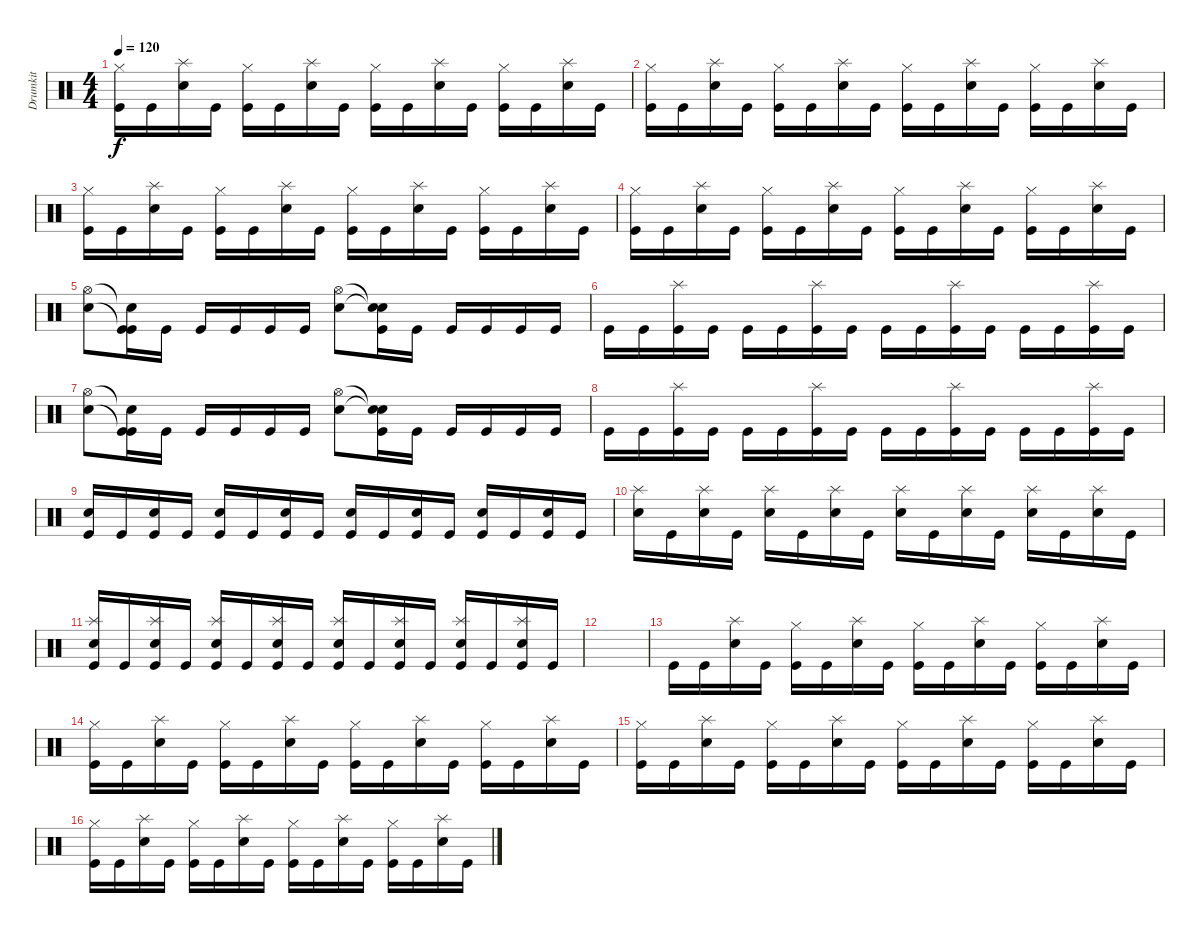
\track ("Drumkit" "Drumkit") {instrument percussion}
\staff {score}
\articulation defaults
\ts (4 4)
\tempo 120
\clef neutral
\ks c
("Hi-Hat (closed)" "Kick (hit)").16{dy f} "Kick (hit)".16 ("Splash (hit)" "Electric Snare (hit)").16 "Kick (hit)".16 ("Hi-Hat (closed)" "Kick (hit)").16 "Kick (hit)".16 ("Splash (hit)" "Electric Snare (hit)").16 "Kick (hit)".16 ("Hi-Hat (closed)" "Kick (hit)").16 "Kick (hit)".16 ("Splash (hit)" "Electric Snare (hit)").16 "Kick (hit)".16 ("Hi-Hat (closed)" "Kick (hit)").16 "Kick (hit)".16 ("Splash (hit)" "Electric Snare (hit)").16 "Kick (hit)".16 |
("Hi-Hat (closed)" "Kick (hit)").16 "Kick (hit)".16 ("Splash (hit)" "Electric Snare (hit)").16 "Kick (hit)".16 ("Hi-Hat (closed)" "Kick (hit)").16 "Kick (hit)".16 ("Splash (hit)" "Electric Snare (hit)").16 "Kick (hit)".16 ("Hi-Hat (closed)" "Kick (hit)").16 "Kick (hit)".16 ("Splash (hit)" "Electric Snare (hit)").16 "Kick (hit)".16 ("Hi-Hat (closed)" "Kick (hit)").16 "Kick (hit)".16 ("Splash (hit)" "Electric Snare (hit)").16 "Kick (hit)".16 |
("Hi-Hat (closed)" "Kick (hit)").16 "Kick (hit)".16 ("Splash (hit)" "Electric Snare (hit)").16 "Kick (hit)".16 ("Hi-Hat (closed)" "Kick (hit)").16 "Kick (hit)".16 ("Splash (hit)" "Electric Snare (hit)").16 "Kick (hit)".16 ("Hi-Hat (closed)" "Kick (hit)").16 "Kick (hit)".16 ("Splash (hit)" "Electric Snare (hit)").16 "Kick (hit)".16 ("Hi-Hat (closed)" "Kick (hit)").16 "Kick (hit)".16 ("Splash (hit)" "Electric Snare (hit)").16 "Kick (hit)".16 |
("Hi-Hat (closed)" "Kick (hit)").16 "Kick (hit)".16 ("Splash (hit)" "Electric Snare (hit)").16 "Kick (hit)".16 ("Hi-Hat (closed)" "Kick (hit)").16 "Kick (hit)".16 ("Splash (hit)" "Electric Snare (hit)").16 "Kick (hit)".16 ("Hi-Hat (closed)" "Kick (hit)").16 "Kick (hit)".16 ("Splash (hit)" "Electric Snare (hit)").16 "Kick (hit)".16 ("Hi-Hat (closed)" "Kick (hit)").16 "Kick (hit)".16 ("Splash (hit)" "Electric Snare (hit)").16 "Kick (hit)".16 |
("Hi-Hat (open)" "Electric Snare (hit)").8 ("Snare (hit)"{t} "Kick (hit)"{t} "Kick (hit)").16 "Kick (hit)".16 "Kick (hit)".16 "Kick (hit)".16 "Kick (hit)".16 "Kick (hit)".16 ("Hi-Hat (open)" "Electric Snare (hit)").8 ("Snare (hit)"{t} "Snare (hit)"{t} "Kick (hit)").16 "Kick (hit)".16 "Kick (hit)".16 "Kick (hit)".16 "Kick (hit)".16 "Kick (hit)".16 |
"Kick (hit)".16 "Kick (hit)".16 ("Splash (hit)" "Kick (hit)").16 "Kick (hit)".16 "Kick (hit)".16 "Kick (hit)".16 ("Splash (hit)" "Kick (hit)").16 "Kick (hit)".16 "Kick (hit)".16 "Kick (hit)".16 ("Splash (hit)" "Kick (hit)").16 "Kick (hit)".16 "Kick (hit)".16 "Kick (hit)".16 ("Splash (hit)" "Kick (hit)").16 "Kick (hit)".16 |
("Hi-Hat (open)" "Electric Snare (hit)").8 ("Snare (hit)"{t} "Kick (hit)"{t} "Kick (hit)").16 "Kick (hit)".16 "Kick (hit)".16 "Kick (hit)".16 "Kick (hit)".16 "Kick (hit)".16 ("Hi-Hat (open)" "Electric Snare (hit)").8 ("Snare (hit)"{t} "Snare (hit)"{t} "Kick (hit)").16 "Kick (hit)".16 "Kick (hit)".16 "Kick (hit)".16 "Kick (hit)".16 "Kick (hit)".16 |
"Kick (hit)".16 "Kick (hit)".16 ("Splash (hit)" "Kick (hit)").16 "Kick (hit)".16 "Kick (hit)".16 "Kick (hit)".16 ("Splash (hit)" "Kick (hit)").16 "Kick (hit)".16 "Kick (hit)".16 "Kick (hit)".16 ("Splash (hit)" "Kick (hit)").16 "Kick (hit)".16 "Kick (hit)".16 "Kick (hit)".16 ("Splash (hit)" "Kick (hit)").16 "Kick (hit)".16 |
("Electric Snare (hit)" "Kick (hit)").16 "Kick (hit)".16 ("Electric Snare (hit)" "Kick (hit)").16 "Kick (hit)".16 ("Electric Snare (hit)" "Kick (hit)").16 "Kick (hit)".16 ("Electric Snare (hit)" "Kick (hit)").16 "Kick (hit)".16 ("Electric Snare (hit)" "Kick (hit)").16 "Kick (hit)".16 ("Electric Snare (hit)" "Kick (hit)").16 "Kick (hit)".16 ("Electric Snare (hit)" "Kick (hit)").16 "Kick (hit)".16 ("Electric Snare (hit)" "Kick (hit)").16 "Kick (hit)".16 |
("Splash (hit)" "Electric Snare (hit)").16 "Kick (hit)".16 ("Splash (hit)" "Electric Snare (hit)").16 "Kick (hit)".16 ("Splash (hit)" "Electric Snare (hit)").16 "Kick (hit)".16 ("Splash (hit)" "Electric Snare (hit)").16 "Kick (hit)".16 ("Splash (hit)" "Electric Snare (hit)").16 "Kick (hit)".16 ("Splash (hit)" "Electric Snare (hit)").16 "Kick (hit)".16 ("Splash (hit)" "Electric Snare (hit)").16 "Kick (hit)".16 ("Splash (hit)" "Electric Snare (hit)").16 "Kick (hit)".16 |
("Splash (hit)" "Electric Snare (hit)" "Kick (hit)").16 "Kick (hit)".16 ("Splash (hit)" "Electric Snare (hit)" "Kick (hit)").16 "Kick (hit)".16 ("Splash (hit)" "Electric Snare (hit)" "Kick (hit)").16 "Kick (hit)".16 ("Splash (hit)" "Electric Snare (hit)" "Kick (hit)").16 "Kick (hit)".16 ("Splash (hit)" "Electric Snare (hit)" "Kick (hit)").16 "Kick (hit)".16 ("Splash (hit)" "Electric Snare (hit)" "Kick (hit)").16 "Kick (hit)".16 ("Splash (hit)" "Electric Snare (hit)" "Kick (hit)").16 "Kick (hit)".16 ("Splash (hit)" "Electric Snare (hit)" "Kick (hit)").16 "Kick (hit)".16 |
|
"Kick (hit)".16 "Kick (hit)".16 ("Splash (hit)" "Electric Snare (hit)").16 "Kick (hit)".16 ("Hi-Hat (closed)" "Kick (hit)").16 "Kick (hit)".16 ("Splash (hit)" "Electric Snare (hit)").16 "Kick (hit)".16 ("Hi-Hat (closed)" "Kick (hit)").16 "Kick (hit)".16 ("Splash (hit)" "Electric Snare (hit)").16 "Kick (hit)".16 ("Hi-Hat (closed)" "Kick (hit)").16 "Kick (hit)".16 ("Splash (hit)" "Electric Snare (hit)").16 "Kick (hit)".16 |
("Hi-Hat (closed)" "Kick (hit)").16 "Kick (hit)".16 ("Splash (hit)" "Electric Snare (hit)").16 "Kick (hit)".16 ("Hi-Hat (closed)" "Kick (hit)").16 "Kick (hit)".16 ("Splash (hit)" "Electric Snare (hit)").16 "Kick (hit)".16 ("Hi-Hat (closed)" "Kick (hit)").16 "Kick (hit)".16 ("Splash (hit)" "Electric Snare (hit)").16 "Kick (hit)".16 ("Hi-Hat (closed)" "Kick (hit)").16 "Kick (hit)".16 ("Splash (hit)" "Electric Snare (hit)").16 "Kick (hit)".16 |
("Hi-Hat (closed)" "Kick (hit)").16 "Kick (hit)".16 ("Splash (hit)" "Electric Snare (hit)").16 "Kick (hit)".16 ("Hi-Hat (closed)" "Kick (hit)").16 "Kick (hit)".16 ("Splash (hit)" "Electric Snare (hit)").16 "Kick (hit)".16 ("Hi-Hat (closed)" "Kick (hit)").16 "Kick (hit)".16 ("Splash (hit)" "Electric Snare (hit)").16 "Kick (hit)".16 ("Hi-Hat (closed)" "Kick (hit)").16 "Kick (hit)".16 ("Splash (hit)" "Electric Snare (hit)").16 "Kick (hit)".16 |
("Hi-Hat (closed)" "Kick (hit)").16 "Kick (hit)".16 ("Splash (hit)" "Electric Snare (hit)").16 "Kick (hit)".16 ("Hi-Hat (closed)" "Kick (hit)").16 "Kick (hit)".16 ("Splash (hit)" "Electric Snare (hit)").16 "Kick (hit)".16 ("Hi-Hat (closed)" "Kick (hit)").16 "Kick (hit)".16 ("Splash (hit)" "Electric Snare (hit)").16 "Kick (hit)".16 ("Hi-Hat (closed)" "Kick (hit)").16 "Kick (hit)".16 ("Splash (hit)" "Electric Snare (hit)").16 "Kick (hit)".16
